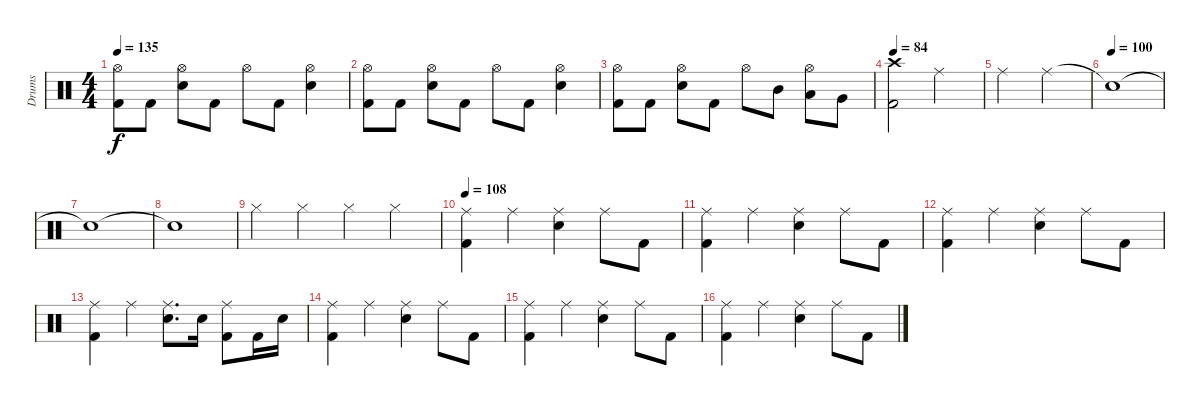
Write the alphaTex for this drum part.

\track ("Drums" "Drums") {instrument percussion}
\staff {score}
\articulation defaults
\ts (4 4)
\tempo 135
\clef neutral
\ks c
("Hi-Hat (open)" "Kick (hit) 2").8{dy f} "Kick (hit) 2".8 ("Hi-Hat (open)" "Electric Snare (hit)").8 "Kick (hit) 2".8 "Hi-Hat (open)".8 "Kick (hit) 2".8 ("Hi-Hat (open)" "Electric Snare (hit)").4 |
("Hi-Hat (open)" "Kick (hit) 2").8 "Kick (hit) 2".8 ("Hi-Hat (open)" "Electric Snare (hit)").8 "Kick (hit) 2".8 "Hi-Hat (open)".8 "Kick (hit) 2".8 ("Hi-Hat (open)" "Electric Snare (hit)").4 |
("Hi-Hat (open)" "Kick (hit) 2").8 "Kick (hit) 2".8 ("Hi-Hat (open)" "Electric Snare (hit)").8 "Kick (hit) 2".8 "Hi-Hat (open)".8 "Mid Tom (hit)".8 ("Hi-Hat (open)" "Low Tom (hit)").8 "Very Low Tom (hit)".8 |
\tempo 84
("Crash high (hit)" "Kick (hit) 2").2 "Ride (middle)".2 |
"Ride (middle)".2 "Ride (middle)".2 |
\tempo (100)
"Snare (hit)"{t}.1 |
"Snare (hit)"{t}.1 |
"Snare (hit)"{t}.1 |
"Hi-Hat (closed)".4 "Hi-Hat (closed)".4 "Hi-Hat (closed)".4 "Hi-Hat (closed)".4 |
\tempo 108
("Ride (middle)" "Kick (hit) 2").4 "Ride (middle)".4 ("Ride (middle)" "Electric Snare (hit)").4 "Ride (middle)".8 "Kick (hit) 2".8 |
("Ride (middle)" "Kick (hit) 2").4 "Ride (middle)".4 ("Ride (middle)" "Electric Snare (hit)").4 "Ride (middle)".8 "Kick (hit) 2".8 |
("Ride (middle)" "Kick (hit) 2").4 "Ride (middle)".4 ("Ride (middle)" "Electric Snare (hit)").4 "Ride (middle)".8 "Kick (hit) 2".8 |
("Ride (middle)" "Kick (hit) 2").4 "Ride (middle)".4 ("Ride (middle)" "Electric Snare (hit)").8{d} "Electric Snare (hit)".16 ("Ride (middle)" "Kick (hit) 2").8 "Kick (hit) 2".16 "Electric Snare (hit)".16 |
("Ride (middle)" "Kick (hit) 2").4 "Ride (middle)".4 ("Ride (middle)" "Electric Snare (hit)").4 "Ride (middle)".8 "Kick (hit) 2".8 |
("Ride (middle)" "Kick (hit) 2").4 "Ride (middle)".4 ("Ride (middle)" "Electric Snare (hit)").4 "Ride (middle)".8 "Kick (hit) 2".8 |
("Ride (middle)" "Kick (hit) 2").4 "Ride (middle)".4 ("Ride (middle)" "Electric Snare (hit)").4 "Ride (middle)".8 "Kick (hit) 2".8
